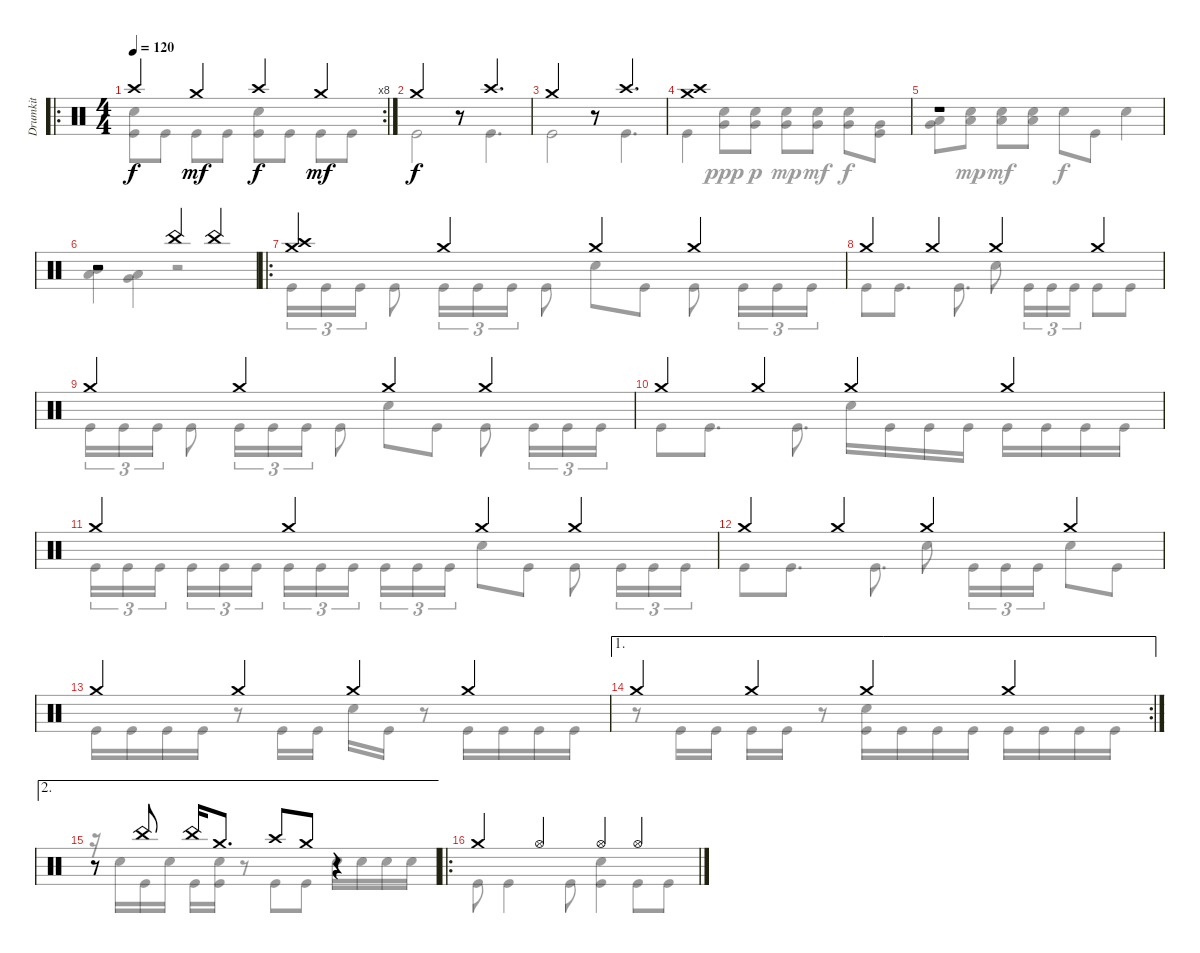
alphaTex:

\track ("Drumkit" "Drumkit") {instrument percussion}
\staff {score}
\articulation defaults
\voice
\ro
\rc 8
\ts (4 4)
\tempo 120
\clef neutral
\ks c "Crash high (hit)".4{dy f} "Crash medium (hit)".4{dy mf} "Crash high (hit)".4{dy f} "Crash medium (hit)".4{dy mf}
|
"Crash medium (hit)".2{dy f} r.8 "Crash high (hit)".4{d} |
"Crash medium (hit)".2 r.8 "Crash high (hit)".4{d} |
("Crash medium (hit)" "Crash high (hit)").1 |
r.1 |
r.2 "China (hit)".4 "China (hit)".4 |
\ro
("Crash high (hit)" "Crash medium (hit)").4 "Crash medium (hit)".4 "Crash medium (hit)".4 "Crash medium (hit)".4 |
"Crash medium (hit)".4 "Crash medium (hit)".4 "Crash medium (hit)".4 "Crash medium (hit)".4 |
"Crash medium (hit)".4 "Crash medium (hit)".4 "Crash medium (hit)".4 "Crash medium (hit)".4 |
"Crash medium (hit)".4 "Crash medium (hit)".4 "Crash medium (hit)".4 "Crash medium (hit)".4 |
"Crash medium (hit)".4 "Crash medium (hit)".4 "Crash medium (hit)".4 "Crash medium (hit)".4 |
"Crash medium (hit)".4 "Crash medium (hit)".4 "Crash medium (hit)".4 "Crash medium (hit)".4 |
"Crash medium (hit)".4 "Crash medium (hit)".4 "Crash medium (hit)".4 "Crash medium (hit)".4 |
\ae 1
\rc 2 "Crash medium (hit)".4 "Crash medium (hit)".4 "Crash medium (hit)".4 "Crash medium (hit)".4
|
\ae 2
r.8 "China (hit)".8 "China (hit)".16 "Crash medium (hit)".8{d} "Crash high (hit)".8 "Crash medium (hit)".8 r.4 |
\ro "Crash medium (hit)".4 "Hi-Hat (open)".4 "Hi-Hat (open)".4 "Hi-Hat (open)".4
\voice
\clef neutral
\ottava regular
\simile none
\ks c
("Snare (hit) 2" "Kick (hit)").8{dy f} "Kick (hit)".8 "Kick (hit)".8 "Kick (hit)".8 ("Snare (hit) 2" "Kick (hit)").8 "Kick (hit)".8 "Kick (hit)".8 "Kick (hit)".8 |
"Kick (hit)".2 r.8 "Kick (hit)".4{d} |
"Kick (hit)".2 r.8 "Kick (hit)".4{d} |
"Kick (hit)".4 ("Snare (hit) 2" "Very Low Tom (hit)").8{dy ppp} ("Snare (hit) 2" "Very Low Tom (hit)").8{dy p} ("Snare (hit) 2" "Very Low Tom (hit)").8{dy mp} ("Snare (hit) 2" "Very Low Tom (hit)").8{dy mf} ("Snare (hit) 2" "Very Low Tom (hit)").8{dy f} ("Very Low Tom (hit)" "Kick (hit)").8 |
("Very Low Tom (hit)" "Low Floor Tom (hit)").8 ("Snare (hit) 2" "Low Floor Tom (hit)").8{dy mp} ("Snare (hit) 2" "Low Floor Tom (hit)").8{dy mf} ("Snare (hit) 2" "Low Floor Tom (hit)").8 "Snare (hit) 2".8{dy f} "Kick (hit)".8 "Snare (hit) 2".4 |
("Mid Tom (hit)" "Low Tom (hit)").4 ("Very Low Tom (hit)" "Low Floor Tom (hit)").4 r.2 |
"Kick (hit)".16{tu (3 2)} "Kick (hit)".16{tu (3 2)} "Kick (hit)".16{tu (3 2)} "Kick (hit)".8 "Kick (hit)".16{tu (3 2)} "Kick (hit)".16{tu (3 2)} "Kick (hit)".16{tu (3 2)} "Kick (hit)".8 "Snare (hit) 2".8 "Kick (hit)".8 "Kick (hit)".8 "Kick (hit)".16{tu (3 2)} "Kick (hit)".16{tu (3 2)} "Kick (hit)".16{tu (3 2)} |
"Kick (hit)".8 "Kick (hit)".8{d} "Kick (hit)".8{d} "Snare (hit) 2".8 "Kick (hit)".16{tu (3 2)} "Kick (hit)".16{tu (3 2)} "Kick (hit)".16{tu (3 2)} "Kick (hit)".8 "Kick (hit)".8 |
"Kick (hit)".16{tu (3 2)} "Kick (hit)".16{tu (3 2)} "Kick (hit)".16{tu (3 2)} "Kick (hit)".8 "Kick (hit)".16{tu (3 2)} "Kick (hit)".16{tu (3 2)} "Kick (hit)".16{tu (3 2)} "Kick (hit)".8 "Snare (hit) 2".8 "Kick (hit)".8 "Kick (hit)".8 "Kick (hit)".16{tu (3 2)} "Kick (hit)".16{tu (3 2)} "Kick (hit)".16{tu (3 2)} |
"Kick (hit)".8 "Kick (hit)".8{d} "Kick (hit)".8{d} "Snare (hit) 2".16 "Kick (hit)".16 "Kick (hit)".16 "Kick (hit)".16 "Kick (hit)".16 "Kick (hit)".16 "Kick (hit)".16 "Kick (hit)".16 |
"Kick (hit)".16{tu (3 2)} "Kick (hit)".16{tu (3 2)} "Kick (hit)".16{tu (3 2) beam splitsecondary} "Kick (hit)".16{tu (3 2)} "Kick (hit)".16{tu (3 2)} "Kick (hit)".16{tu (3 2)} "Kick (hit)".16{tu (3 2)} "Kick (hit)".16{tu (3 2)} "Kick (hit)".16{tu (3 2) beam splitsecondary} "Kick (hit)".16{tu (3 2)} "Kick (hit)".16{tu (3 2)} "Kick (hit)".16{tu (3 2)} "Snare (hit) 2".8 "Kick (hit)".8 "Kick (hit)".8 "Kick (hit)".16{tu (3 2)} "Kick (hit)".16{tu (3 2)} "Kick (hit)".16{tu (3 2)} |
"Kick (hit)".8 "Kick (hit)".8{d} "Kick (hit)".8{d} "Snare (hit) 2".8 "Kick (hit)".16{tu (3 2)} "Kick (hit)".16{tu (3 2)} "Kick (hit)".16{tu (3 2)} "Snare (hit) 2".8 "Kick (hit)".8 |
"Kick (hit)".16 "Kick (hit)".16 "Kick (hit)".16 "Kick (hit)".16 r.8 "Kick (hit)".16 "Kick (hit)".16 "Snare (hit) 2".16 "Kick (hit)".16 r.8 "Kick (hit)".16 "Kick (hit)".16 "Kick (hit)".16 "Kick (hit)".16 |
r.8 "Kick (hit)".16 "Kick (hit)".16 "Kick (hit)".16 "Kick (hit)".16 r.8 ("Snare (hit) 2" "Kick (hit)").16 "Kick (hit)".16 "Kick (hit)".16 "Kick (hit)".16 "Kick (hit)".16 "Kick (hit)".16 "Kick (hit)".16 "Kick (hit)".16 |
r.16 "Snare (hit) 2".16 "Kick (hit)".16 "Snare (hit) 2".16 "Kick (hit)".16 ("Snare (hit) 2" "Kick (hit)").16 r.8 "Kick (hit)".8 "Kick (hit)".8 "Snare (hit) 2".16 "Snare (hit) 2".16 "Snare (hit) 2".16 "Snare (hit) 2".16 |
"Kick (hit)".8 "Kick (hit)".4 "Kick (hit)".8 ("Snare (hit) 2" "Kick (hit)").4 "Kick (hit)".8 "Kick (hit)".8
